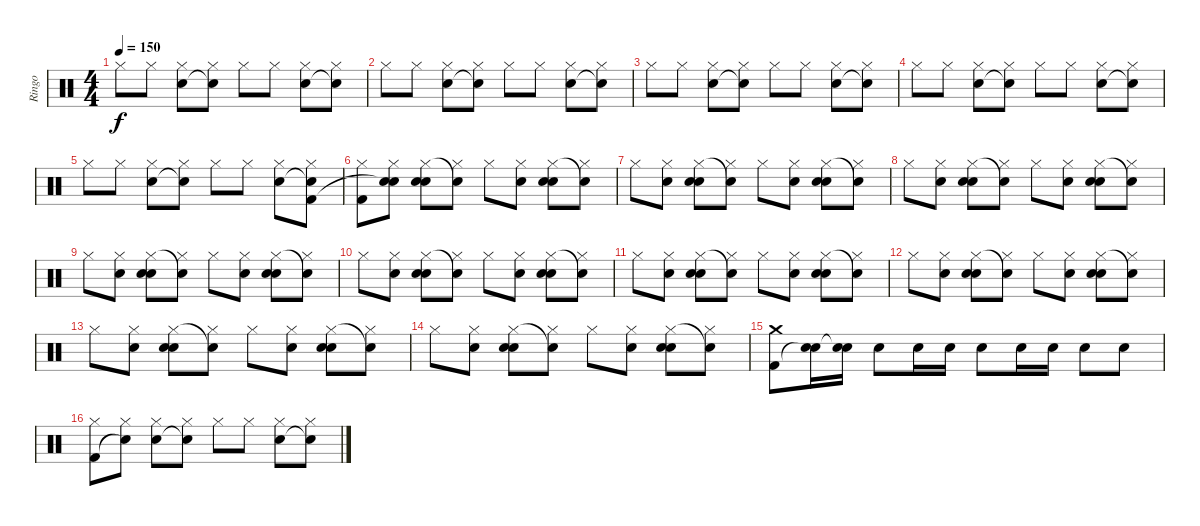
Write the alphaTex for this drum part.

\track ("Ringo" "Ringo") {instrument percussion}
\staff {score}
\articulation defaults
\ts (4 4)
\tempo 150
\clef neutral
\ks c "Hi-Hat (closed)".8{dy f} "Hi-Hat (closed)".8
("Hi-Hat (closed)" "Snare (hit) 2").8 ("Hi-Hat (closed)" "Snare (hit)"{t}).8 "Hi-Hat (closed)".8 "Hi-Hat (closed)".8 ("Hi-Hat (closed)" "Snare (hit) 2").8 ("Hi-Hat (closed)" "Snare (hit)"{t}).8 |
"Hi-Hat (closed)".8 "Hi-Hat (closed)".8 ("Hi-Hat (closed)" "Snare (hit) 2").8 ("Hi-Hat (closed)" "Snare (hit)"{t}).8 "Hi-Hat (closed)".8 "Hi-Hat (closed)".8 ("Hi-Hat (closed)" "Snare (hit) 2").8 ("Hi-Hat (closed)" "Snare (hit)"{t}).8 |
"Hi-Hat (closed)".8 "Hi-Hat (closed)".8 ("Hi-Hat (closed)" "Snare (hit) 2").8 ("Hi-Hat (closed)" "Snare (hit)"{t}).8 "Hi-Hat (closed)".8 "Hi-Hat (closed)".8 ("Hi-Hat (closed)" "Snare (hit) 2").8 ("Hi-Hat (closed)" "Snare (hit)"{t}).8 |
"Hi-Hat (closed)".8 "Hi-Hat (closed)".8 ("Hi-Hat (closed)" "Snare (hit) 2").8 ("Hi-Hat (closed)" "Snare (hit)"{t}).8 "Hi-Hat (closed)".8 "Hi-Hat (closed)".8 ("Hi-Hat (closed)" "Snare (hit) 2").8 ("Hi-Hat (closed)" "Snare (hit)"{t}).8 |
"Hi-Hat (closed)".8 "Hi-Hat (closed)".8 ("Hi-Hat (closed)" "Snare (hit) 2").8 ("Hi-Hat (closed)" "Snare (hit)"{t}).8 "Hi-Hat (closed)".8 "Hi-Hat (closed)".8 ("Hi-Hat (closed)" "Snare (hit) 2").8 ("Hi-Hat (closed)" "Snare (hit)"{t} "Kick (hit) 2").8 |
("Hi-Hat (closed)" "Kick (hit) 2").8 ("Hand Clap (hit)" "Hi-Hat (closed)" "Snare (hit)"{t}).8 ("Hand Clap (hit)" "Hi-Hat (closed)" "Snare (hit) 2").8 ("Hi-Hat (closed)" "Snare (hit)"{t}).8 "Hi-Hat (closed)".8 ("Hand Clap (hit)" "Hi-Hat (closed)").8 ("Hand Clap (hit)" "Hi-Hat (closed)" "Snare (hit) 2").8 ("Hi-Hat (closed)" "Snare (hit)"{t}).8 |
"Hi-Hat (closed)".8 ("Hand Clap (hit)" "Hi-Hat (closed)").8 ("Hand Clap (hit)" "Hi-Hat (closed)" "Snare (hit) 2").8 ("Hi-Hat (closed)" "Snare (hit)"{t}).8 "Hi-Hat (closed)".8 ("Hand Clap (hit)" "Hi-Hat (closed)").8 ("Hand Clap (hit)" "Hi-Hat (closed)" "Snare (hit) 2").8 ("Hi-Hat (closed)" "Snare (hit)"{t}).8 |
"Hi-Hat (closed)".8 ("Hand Clap (hit)" "Hi-Hat (closed)").8 ("Hand Clap (hit)" "Hi-Hat (closed)" "Snare (hit) 2").8 ("Hi-Hat (closed)" "Snare (hit)"{t}).8 "Hi-Hat (closed)".8 ("Hand Clap (hit)" "Hi-Hat (closed)").8 ("Hand Clap (hit)" "Hi-Hat (closed)" "Snare (hit) 2").8 ("Hi-Hat (closed)" "Snare (hit)"{t}).8 |
"Hi-Hat (closed)".8 ("Hand Clap (hit)" "Hi-Hat (closed)").8 ("Hand Clap (hit)" "Hi-Hat (closed)" "Snare (hit) 2").8 ("Hi-Hat (closed)" "Snare (hit)"{t}).8 "Hi-Hat (closed)".8 ("Hand Clap (hit)" "Hi-Hat (closed)").8 ("Hand Clap (hit)" "Hi-Hat (closed)" "Snare (hit) 2").8 ("Hi-Hat (closed)" "Snare (hit)"{t}).8 |
"Hi-Hat (closed)".8 ("Hand Clap (hit)" "Hi-Hat (closed)").8 ("Hand Clap (hit)" "Hi-Hat (closed)" "Snare (hit) 2").8 ("Hi-Hat (closed)" "Snare (hit)"{t}).8 "Hi-Hat (closed)".8 ("Hand Clap (hit)" "Hi-Hat (closed)").8 ("Hand Clap (hit)" "Hi-Hat (closed)" "Snare (hit) 2").8 ("Hi-Hat (closed)" "Snare (hit)"{t}).8 |
"Hi-Hat (closed)".8 ("Hand Clap (hit)" "Hi-Hat (closed)").8 ("Hand Clap (hit)" "Hi-Hat (closed)" "Snare (hit) 2").8 ("Hi-Hat (closed)" "Snare (hit)"{t}).8 "Hi-Hat (closed)".8 ("Hand Clap (hit)" "Hi-Hat (closed)").8 ("Hand Clap (hit)" "Hi-Hat (closed)" "Snare (hit) 2").8 ("Hi-Hat (closed)" "Snare (hit)"{t}).8 |
"Hi-Hat (closed)".8 ("Hand Clap (hit)" "Hi-Hat (closed)").8 ("Hand Clap (hit)" "Hi-Hat (closed)" "Snare (hit) 2").8 ("Hi-Hat (closed)" "Snare (hit)"{t}).8 "Hi-Hat (closed)".8 ("Hand Clap (hit)" "Hi-Hat (closed)").8 ("Hand Clap (hit)" "Hi-Hat (closed)" "Snare (hit) 2").8 ("Hi-Hat (closed)" "Snare (hit)"{t}).8 |
"Hi-Hat (closed)".8 ("Hand Clap (hit)" "Hi-Hat (closed)").8 ("Hand Clap (hit)" "Hi-Hat (closed)" "Snare (hit) 2").8 ("Hi-Hat (closed)" "Snare (hit)"{t}).8 "Hi-Hat (closed)".8 ("Hand Clap (hit)" "Hi-Hat (closed)").8 ("Hand Clap (hit)" "Hi-Hat (closed)" "Snare (hit) 2").8 ("Hi-Hat (closed)" "Snare (hit)"{t}).8 |
"Hi-Hat (closed)".8 ("Hand Clap (hit)" "Hi-Hat (closed)").8 ("Hand Clap (hit)" "Hi-Hat (closed)" "Snare (hit) 2").8 ("Hi-Hat (closed)" "Snare (hit)"{t}).8 "Hi-Hat (closed)".8 ("Hand Clap (hit)" "Hi-Hat (closed)").8 ("Hand Clap (hit)" "Hi-Hat (closed)" "Snare (hit) 2").8 ("Hi-Hat (closed)" "Snare (hit)"{t}).8 |
("Crash medium (hit)" "Kick (hit) 2").8 ("Snare (hit) 2" "Snare (hit)"{t}).16 ("Snare (hit) 2" "Snare (hit)"{t}).16 "Snare (hit) 2".8 "Snare (hit) 2".16 "Snare (hit) 2".16 "Snare (hit) 2".8 "Snare (hit) 2".16 "Snare (hit) 2".16 "Snare (hit) 2".8 "Snare (hit) 2".8 |
("Hi-Hat (closed)" "Kick (hit) 2").8 ("Hi-Hat (closed)" "Snare (hit)"{t}).8 ("Hi-Hat (closed)" "Snare (hit) 2").8 ("Hi-Hat (closed)" "Snare (hit)"{t}).8 "Hi-Hat (closed)".8 "Hi-Hat (closed)".8 ("Hi-Hat (closed)" "Snare (hit) 2").8 ("Hi-Hat (closed)" "Snare (hit)"{t}).8
